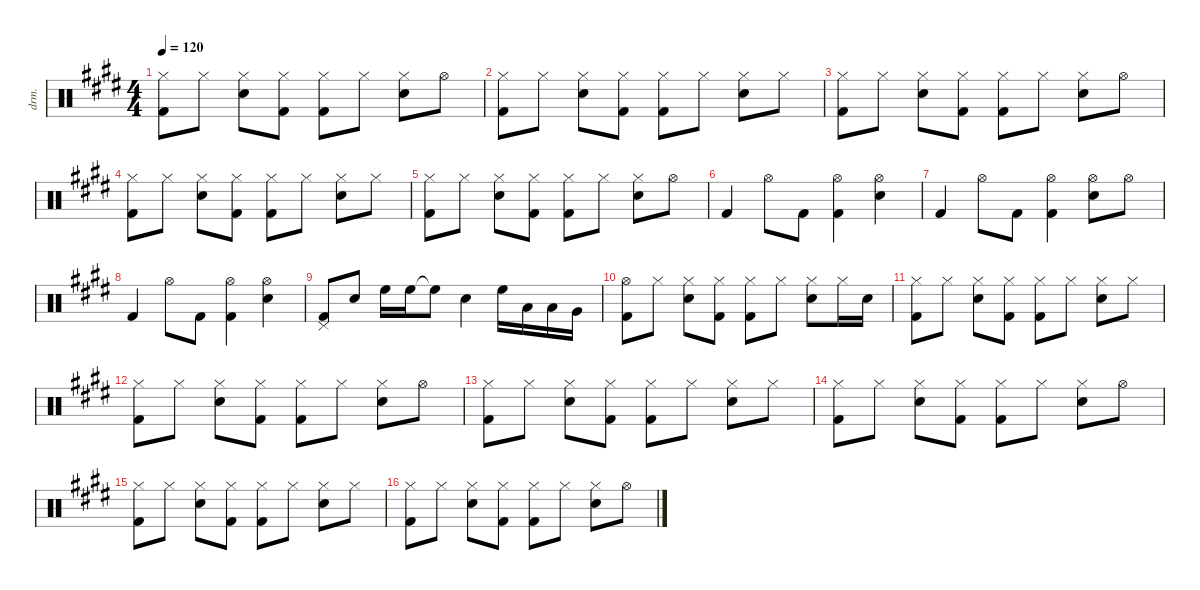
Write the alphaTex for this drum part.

\defaultSystemsLayout 4
\hideDynamics
\bracketExtendMode nobrackets
\track ("Drum" "drm.") {instrument percussion}
\staff {score}
\articulation defaults
\ts (4 4)
\tempo 120
\clef neutral
\ks e
("Hi-Hat (closed)"{acc forcenatural} "Kick (hit) 2"{acc forcenatural}).8{dy f beam Down} "Hi-Hat (closed)"{acc forcenatural}.8{beam Down} ("Hi-Hat (closed)"{acc forcenatural} "Snare (hit) 2"{acc forcenatural}).8{beam Down} ("Hi-Hat (closed)"{acc forcenatural} "Kick (hit) 2"{acc forcenatural}).8{beam Down} ("Hi-Hat (closed)"{acc forcenatural} "Kick (hit) 2"{acc forcenatural}).8{beam Down} "Hi-Hat (closed)"{acc forcenatural}.8{beam Down} ("Hi-Hat (closed)"{acc forcenatural} "Snare (hit) 2"{acc forcenatural}).8{beam Down} "Hi-Hat (open)"{acc forcenatural}.8{beam Down} |
("Hi-Hat (closed)"{acc forcenatural} "Kick (hit) 2"{acc forcenatural}).8{beam Down} "Hi-Hat (closed)"{acc forcenatural}.8{beam Down} ("Hi-Hat (closed)"{acc forcenatural} "Snare (hit) 2"{acc forcenatural}).8{beam Down} ("Hi-Hat (closed)"{acc forcenatural} "Kick (hit) 2"{acc forcenatural}).8{beam Down} ("Hi-Hat (closed)"{acc forcenatural} "Kick (hit) 2"{acc forcenatural}).8{beam Down} "Hi-Hat (closed)"{acc forcenatural}.8{beam Down} ("Hi-Hat (closed)"{acc forcenatural} "Snare (hit) 2"{acc forcenatural}).8{beam Down} "Hi-Hat (closed)"{acc forcenatural}.8{beam Down} |
("Hi-Hat (closed)"{acc forcenatural} "Kick (hit) 2"{acc forcenatural}).8{beam Down} "Hi-Hat (closed)"{acc forcenatural}.8{beam Down} ("Hi-Hat (closed)"{acc forcenatural} "Snare (hit) 2"{acc forcenatural}).8{beam Down} ("Hi-Hat (closed)"{acc forcenatural} "Kick (hit) 2"{acc forcenatural}).8{beam Down} ("Hi-Hat (closed)"{acc forcenatural} "Kick (hit) 2"{acc forcenatural}).8{beam Down} "Hi-Hat (closed)"{acc forcenatural}.8{beam Down} ("Hi-Hat (closed)"{acc forcenatural} "Snare (hit) 2"{acc forcenatural}).8{beam Down} "Hi-Hat (open)"{acc forcenatural}.8{beam Down} |
("Hi-Hat (closed)"{acc forcenatural} "Kick (hit) 2"{acc forcenatural}).8{beam Down} "Hi-Hat (closed)"{acc forcenatural}.8{beam Down} ("Hi-Hat (closed)"{acc forcenatural} "Snare (hit) 2"{acc forcenatural}).8{beam Down} ("Hi-Hat (closed)"{acc forcenatural} "Kick (hit) 2"{acc forcenatural}).8{beam Down} ("Hi-Hat (closed)"{acc forcenatural} "Kick (hit) 2"{acc forcenatural}).8{beam Down} "Hi-Hat (closed)"{acc forcenatural}.8{beam Down} ("Hi-Hat (closed)"{acc forcenatural} "Snare (hit) 2"{acc forcenatural}).8{beam Down} "Hi-Hat (closed)"{acc forcenatural}.8{beam Down} |
("Hi-Hat (closed)"{acc forcenatural} "Kick (hit) 2"{acc forcenatural}).8{beam Down} "Hi-Hat (closed)"{acc forcenatural}.8{beam Down} ("Hi-Hat (closed)"{acc forcenatural} "Snare (hit) 2"{acc forcenatural}).8{beam Down} ("Hi-Hat (closed)"{acc forcenatural} "Kick (hit) 2"{acc forcenatural}).8{beam Down} ("Hi-Hat (closed)"{acc forcenatural} "Kick (hit) 2"{acc forcenatural}).8{beam Down} "Hi-Hat (closed)"{acc forcenatural}.8{beam Down} ("Hi-Hat (closed)"{acc forcenatural} "Snare (hit) 2"{acc forcenatural}).8{beam Down} "Hi-Hat (open)"{acc forcenatural}.8{beam Down} |
"Kick (hit) 2"{acc forcenatural}.4{beam Up} "Hi-Hat (open)"{acc forcenatural}.8{beam Down} "Kick (hit) 2"{acc forcenatural}.8{beam Down} ("Hi-Hat (open)"{acc forcenatural} "Kick (hit) 2"{acc forcenatural}).4{beam Down} ("Hi-Hat (open)"{acc forcenatural} "Snare (hit) 2"{acc forcenatural}).4{beam Down} |
"Kick (hit) 2"{acc forcenatural}.4{beam Up} "Hi-Hat (open)"{acc forcenatural}.8{beam Down} "Kick (hit) 2"{acc forcenatural}.8{beam Down} ("Hi-Hat (open)"{acc forcenatural} "Kick (hit) 2"{acc forcenatural}).4{beam Down} ("Hi-Hat (open)"{acc forcenatural} "Snare (hit) 2"{acc forcenatural}).8{beam Down} "Hi-Hat (open)"{acc forcenatural}.8{beam Down} |
"Kick (hit) 2"{acc forcenatural}.4{beam Up} "Hi-Hat (open)"{acc forcenatural}.8{beam Down} "Kick (hit) 2"{acc forcenatural}.8{beam Down} ("Hi-Hat (open)"{acc forcenatural} "Kick (hit) 2"{acc forcenatural}).4{beam Down} ("Hi-Hat (open)"{acc forcenatural} "Snare (hit) 2"{acc forcenatural}).4{beam Down} |
("Pedal Hi-Hat (hit)"{acc forcenatural} "Kick (hit) 2"{acc forcenatural}).8{beam Up} "Snare (hit) 2"{acc forcenatural}.8{beam Up} "High Floor Tom (hit)"{acc forcenatural}.16{beam Down} "High Floor Tom (hit)"{acc forcenatural}.16{beam Down} "High Floor Tom (hit)"{t acc forcenatural}.8{beam Down} "Snare (hit) 2"{acc forcenatural}.4{beam Down} "High Floor Tom (hit)"{acc forcenatural}.16{beam Down} "Low Tom (hit)"{acc forcenatural}.16{beam Down} "Low Tom (hit)"{acc forcenatural}.16{beam Down} "Very Low Tom (hit)"{acc forcenatural}.16{beam Down} |
("Hi-Hat (open)"{acc forcenatural} "Kick (hit) 2"{acc forcenatural}).8{beam Down} "Hi-Hat (closed)"{acc forcenatural}.8{beam Down} ("Hi-Hat (closed)"{acc forcenatural} "Snare (hit) 2"{acc forcenatural}).8{beam Down} ("Hi-Hat (closed)"{acc forcenatural} "Kick (hit) 2"{acc forcenatural}).8{beam Down} ("Hi-Hat (closed)"{acc forcenatural} "Kick (hit) 2"{acc forcenatural}).8{beam Down} "Hi-Hat (closed)"{acc forcenatural}.8{beam Down} ("Hi-Hat (closed)"{acc forcenatural} "Snare (hit) 2"{acc forcenatural}).8{beam Down} "Hi-Hat (closed)"{acc forcenatural}.16{beam Down} "Snare (hit) 2"{acc forcenatural}.16{beam Down} |
("Hi-Hat (closed)"{acc forcenatural} "Kick (hit) 2"{acc forcenatural}).8{beam Down} "Hi-Hat (closed)"{acc forcenatural}.8{beam Down} ("Hi-Hat (closed)"{acc forcenatural} "Snare (hit) 2"{acc forcenatural}).8{beam Down} ("Hi-Hat (closed)"{acc forcenatural} "Kick (hit) 2"{acc forcenatural}).8{beam Down} ("Hi-Hat (closed)"{acc forcenatural} "Kick (hit) 2"{acc forcenatural}).8{beam Down} "Hi-Hat (closed)"{acc forcenatural}.8{beam Down} ("Hi-Hat (closed)"{acc forcenatural} "Snare (hit) 2"{acc forcenatural}).8{beam Down} "Hi-Hat (closed)"{acc forcenatural}.8{beam Down} |
("Hi-Hat (closed)"{acc forcenatural} "Kick (hit) 2"{acc forcenatural}).8{beam Down} "Hi-Hat (closed)"{acc forcenatural}.8{beam Down} ("Hi-Hat (closed)"{acc forcenatural} "Snare (hit) 2"{acc forcenatural}).8{beam Down} ("Hi-Hat (closed)"{acc forcenatural} "Kick (hit) 2"{acc forcenatural}).8{beam Down} ("Hi-Hat (closed)"{acc forcenatural} "Kick (hit) 2"{acc forcenatural}).8{beam Down} "Hi-Hat (closed)"{acc forcenatural}.8{beam Down} ("Hi-Hat (closed)"{acc forcenatural} "Snare (hit) 2"{acc forcenatural}).8{beam Down} "Hi-Hat (open)"{acc forcenatural}.8{beam Down} |
("Hi-Hat (closed)"{acc forcenatural} "Kick (hit) 2"{acc forcenatural}).8{beam Down} "Hi-Hat (closed)"{acc forcenatural}.8{beam Down} ("Hi-Hat (closed)"{acc forcenatural} "Snare (hit) 2"{acc forcenatural}).8{beam Down} ("Hi-Hat (closed)"{acc forcenatural} "Kick (hit) 2"{acc forcenatural}).8{beam Down} ("Hi-Hat (closed)"{acc forcenatural} "Kick (hit) 2"{acc forcenatural}).8{beam Down} "Hi-Hat (closed)"{acc forcenatural}.8{beam Down} ("Hi-Hat (closed)"{acc forcenatural} "Snare (hit) 2"{acc forcenatural}).8{beam Down} "Hi-Hat (closed)"{acc forcenatural}.8{beam Down} |
("Hi-Hat (closed)"{acc forcenatural} "Kick (hit) 2"{acc forcenatural}).8{beam Down} "Hi-Hat (closed)"{acc forcenatural}.8{beam Down} ("Hi-Hat (closed)"{acc forcenatural} "Snare (hit) 2"{acc forcenatural}).8{beam Down} ("Hi-Hat (closed)"{acc forcenatural} "Kick (hit) 2"{acc forcenatural}).8{beam Down} ("Hi-Hat (closed)"{acc forcenatural} "Kick (hit) 2"{acc forcenatural}).8{beam Down} "Hi-Hat (closed)"{acc forcenatural}.8{beam Down} ("Hi-Hat (closed)"{acc forcenatural} "Snare (hit) 2"{acc forcenatural}).8{beam Down} "Hi-Hat (open)"{acc forcenatural}.8{beam Down} |
("Hi-Hat (closed)"{acc forcenatural} "Kick (hit) 2"{acc forcenatural}).8{beam Down} "Hi-Hat (closed)"{acc forcenatural}.8{beam Down} ("Hi-Hat (closed)"{acc forcenatural} "Snare (hit) 2"{acc forcenatural}).8{beam Down} ("Hi-Hat (closed)"{acc forcenatural} "Kick (hit) 2"{acc forcenatural}).8{beam Down} ("Hi-Hat (closed)"{acc forcenatural} "Kick (hit) 2"{acc forcenatural}).8{beam Down} "Hi-Hat (closed)"{acc forcenatural}.8{beam Down} ("Hi-Hat (closed)"{acc forcenatural} "Snare (hit) 2"{acc forcenatural}).8{beam Down} "Hi-Hat (closed)"{acc forcenatural}.8{beam Down} |
("Hi-Hat (closed)"{acc forcenatural} "Kick (hit) 2"{acc forcenatural}).8{beam Down} "Hi-Hat (closed)"{acc forcenatural}.8{beam Down} ("Hi-Hat (closed)"{acc forcenatural} "Snare (hit) 2"{acc forcenatural}).8{beam Down} ("Hi-Hat (closed)"{acc forcenatural} "Kick (hit) 2"{acc forcenatural}).8{beam Down} ("Hi-Hat (closed)"{acc forcenatural} "Kick (hit) 2"{acc forcenatural}).8{beam Down} "Hi-Hat (closed)"{acc forcenatural}.8{beam Down} ("Hi-Hat (closed)"{acc forcenatural} "Snare (hit) 2"{acc forcenatural}).8{beam Down} "Hi-Hat (open)"{acc forcenatural}.8{beam Down}
